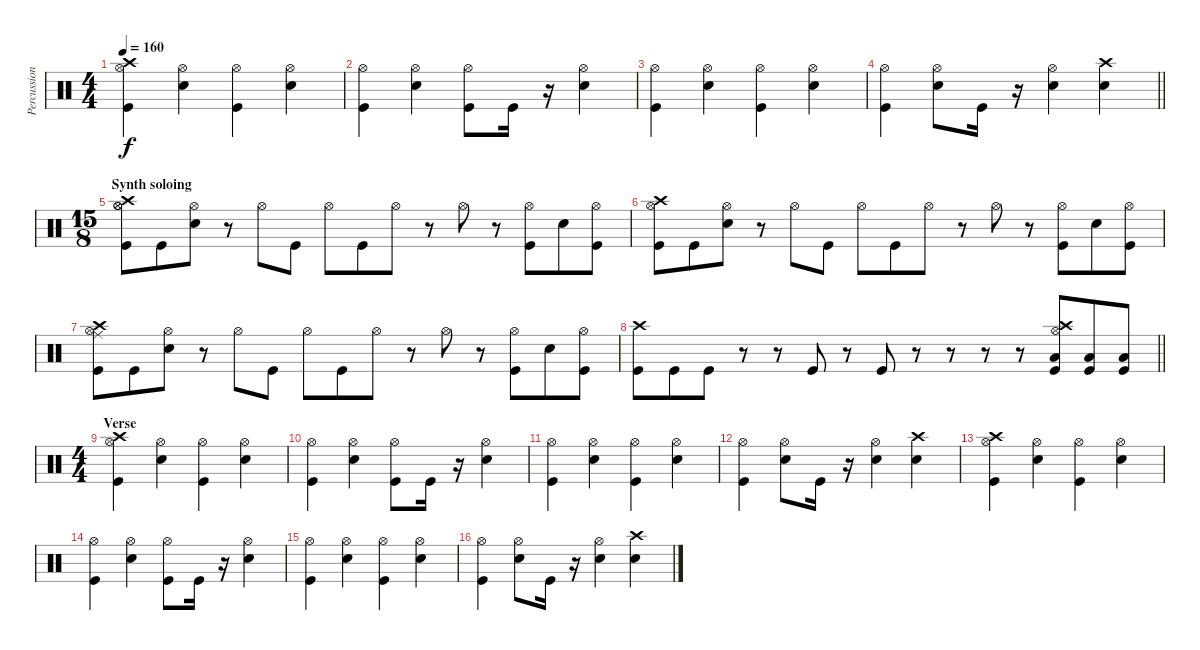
\track ("Percussion" "Percussion") {instrument percussion}
\staff {score}
\articulation defaults
\ts (4 4)
\tempo 160
\clef neutral
\ks c
("Kick (hit)" "Crash high (hit)" "Hi-Hat (open)").4{dy f} ("Hi-Hat (open)" "Snare (hit) 2").4 ("Kick (hit)" "Hi-Hat (open)").4 ("Snare (hit) 2" "Hi-Hat (open)").4 |
("Kick (hit)" "Hi-Hat (open)").4 ("Hi-Hat (open)" "Snare (hit) 2").4 ("Kick (hit)" "Hi-Hat (open)").8 "Kick (hit)".16 r.16 ("Snare (hit) 2" "Hi-Hat (open)").4 |
("Kick (hit)" "Hi-Hat (open)").4 ("Hi-Hat (open)" "Snare (hit) 2").4 ("Kick (hit)" "Hi-Hat (open)").4 ("Snare (hit) 2" "Hi-Hat (open)").4 |
\barLineRight lightlight
("Kick (hit)" "Hi-Hat (open)").4 ("Snare (hit) 2" "Hi-Hat (open)").8 "Kick (hit)".16 r.16 ("Snare (hit) 2" "Hi-Hat (open)").4 ("Snare (hit) 2" "Crash high (hit)").4 |
\ts (15 8)
\section ("" "Synth soloing")
("Kick (hit)" "Hi-Hat (open)" "Crash high (hit)" "Hi-Hat (open)").8 "Kick (hit)".8 ("Snare (hit) 2" "Hi-Hat (open)").8 r.8 "Hi-Hat (open)".8 "Kick (hit)".8 "Hi-Hat (open)".8 "Kick (hit)".8 "Hi-Hat (open)".8 r.8 "Hi-Hat (open)".8 r.8 ("Kick (hit)" "Hi-Hat (open)").8 "Snare (hit) 2".8 ("Kick (hit)" "Hi-Hat (open)").8 |
("Kick (hit)" "Crash high (hit)" "Hi-Hat (open)").8 "Kick (hit)".8 ("Snare (hit) 2" "Hi-Hat (open)").8 r.8 "Hi-Hat (open)".8 "Kick (hit)".8 "Hi-Hat (open)".8 "Kick (hit)".8 "Hi-Hat (open)".8 r.8 "Hi-Hat (open)".8 r.8 ("Kick (hit)" "Hi-Hat (open)").8 "Snare (hit) 2".8 ("Kick (hit)" "Hi-Hat (open)").8 |
("Kick (hit)" "Ride (middle)" "Crash high (hit)" "Hi-Hat (open)").8 "Kick (hit)".8 ("Snare (hit) 2" "Hi-Hat (open)").8 r.8 "Hi-Hat (open)".8 "Kick (hit)".8 "Hi-Hat (open)".8 "Kick (hit)".8 "Hi-Hat (open)".8 r.8 "Hi-Hat (open)".8 r.8 ("Kick (hit)" "Hi-Hat (open)").8 "Snare (hit) 2".8 ("Kick (hit)" "Hi-Hat (open)").8 |
\barLineRight lightlight
("Kick (hit)" "Crash high (hit)").8 "Kick (hit)".8 "Kick (hit)".8 r.8 r.8 "Kick (hit)".8 r.8 "Kick (hit)".8 r.8 r.8 r.8 r.8 ("Kick (hit)" "Hi-Hat (open)" "Low Floor Tom (hit)" "Crash high (hit)").8 ("Kick (hit)" "Low Floor Tom (hit)").8 ("Kick (hit)" "Low Floor Tom (hit)").8 |
\ts (4 4)
\section ("" "Verse")
("Kick (hit)" "Crash high (hit)" "Hi-Hat (open)").4 ("Hi-Hat (open)" "Snare (hit) 2").4 ("Kick (hit)" "Hi-Hat (open)").4 ("Snare (hit) 2" "Hi-Hat (open)").4 |
("Kick (hit)" "Hi-Hat (open)").4 ("Hi-Hat (open)" "Snare (hit) 2").4 ("Kick (hit)" "Hi-Hat (open)").8 "Kick (hit)".16 r.16 ("Snare (hit) 2" "Hi-Hat (open)").4 |
("Kick (hit)" "Hi-Hat (open)").4 ("Hi-Hat (open)" "Snare (hit) 2").4 ("Kick (hit)" "Hi-Hat (open)").4 ("Snare (hit) 2" "Hi-Hat (open)").4 |
("Kick (hit)" "Hi-Hat (open)").4 ("Snare (hit) 2" "Hi-Hat (open)").8 "Kick (hit)".16 r.16 ("Snare (hit) 2" "Hi-Hat (open)").4 ("Snare (hit) 2" "Crash high (hit)").4 |
("Kick (hit)" "Crash high (hit)" "Hi-Hat (open)").4 ("Hi-Hat (open)" "Snare (hit) 2").4 ("Kick (hit)" "Hi-Hat (open)").4 ("Snare (hit) 2" "Hi-Hat (open)").4 |
("Kick (hit)" "Hi-Hat (open)").4 ("Hi-Hat (open)" "Snare (hit) 2").4 ("Kick (hit)" "Hi-Hat (open)").8 "Kick (hit)".16 r.16 ("Snare (hit) 2" "Hi-Hat (open)").4 |
("Kick (hit)" "Hi-Hat (open)").4 ("Hi-Hat (open)" "Snare (hit) 2").4 ("Kick (hit)" "Hi-Hat (open)").4 ("Snare (hit) 2" "Hi-Hat (open)").4 |
("Kick (hit)" "Hi-Hat (open)").4 ("Snare (hit) 2" "Hi-Hat (open)").8 "Kick (hit)".16 r.16 ("Snare (hit) 2" "Hi-Hat (open)").4 ("Snare (hit) 2" "Crash high (hit)").4
